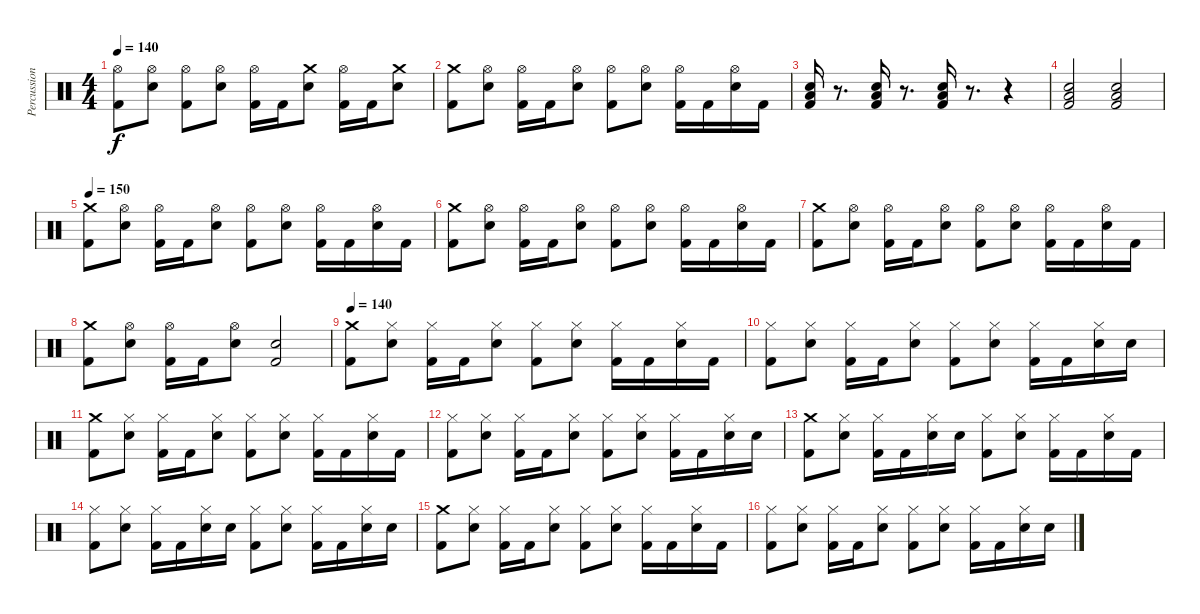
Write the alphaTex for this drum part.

\track ("Percussion" "Percussion") {instrument percussion}
\staff {score}
\articulation defaults
\ts (4 4)
\tempo 140
\clef neutral
\ks c
("Hi-Hat (open)" "Kick (hit) 2").8{dy f} ("Hi-Hat (open)" "Electric Snare (hit)").8 ("Hi-Hat (open)" "Kick (hit) 2").8 ("Hi-Hat (open)" "Electric Snare (hit)").8 ("Hi-Hat (open)" "Kick (hit) 2").16 "Kick (hit) 2".16 ("Crash medium (hit)" "Electric Snare (hit)").8 ("Hi-Hat (open)" "Kick (hit) 2").16 "Kick (hit) 2".16 ("Crash medium (hit)" "Electric Snare (hit)").8 |
("Crash medium (hit)" "Kick (hit) 2").8 ("Hi-Hat (open)" "Electric Snare (hit)").8 ("Hi-Hat (open)" "Kick (hit) 2").16 "Kick (hit) 2".16 ("Hi-Hat (open)" "Electric Snare (hit)").8 ("Hi-Hat (open)" "Kick (hit) 2").8 ("Hi-Hat (open)" "Electric Snare (hit)").8 ("Hi-Hat (open)" "Kick (hit) 2").16 "Kick (hit) 2".16 ("Hi-Hat (open)" "Electric Snare (hit)").16 "Kick (hit) 2".16 |
("Low Floor Tom (hit)" "Electric Snare (hit)" "Kick (hit) 2").16 r.8{d} ("Low Floor Tom (hit)" "Electric Snare (hit)" "Kick (hit) 2").16 r.8{d} ("Low Floor Tom (hit)" "Electric Snare (hit)" "Kick (hit) 2").16 r.8{d} r.4 |
("Low Floor Tom (hit)" "Electric Snare (hit)" "Kick (hit) 2").2 ("Low Floor Tom (hit)" "Electric Snare (hit)" "Kick (hit) 2").2 |
\tempo 150
("Crash medium (hit)" "Kick (hit) 2").8 ("Hi-Hat (open)" "Electric Snare (hit)").8 ("Hi-Hat (open)" "Kick (hit) 2").16 "Kick (hit) 2".16 ("Hi-Hat (open)" "Electric Snare (hit)").8 ("Hi-Hat (open)" "Kick (hit) 2").8 ("Hi-Hat (open)" "Electric Snare (hit)").8 ("Hi-Hat (open)" "Kick (hit) 2").16 "Kick (hit) 2".16 ("Hi-Hat (open)" "Electric Snare (hit)").16 "Kick (hit) 2".16 |
("Crash medium (hit)" "Kick (hit) 2").8 ("Hi-Hat (open)" "Electric Snare (hit)").8 ("Hi-Hat (open)" "Kick (hit) 2").16 "Kick (hit) 2".16 ("Hi-Hat (open)" "Electric Snare (hit)").8 ("Hi-Hat (open)" "Kick (hit) 2").8 ("Hi-Hat (open)" "Electric Snare (hit)").8 ("Hi-Hat (open)" "Kick (hit) 2").16 "Kick (hit) 2".16 ("Hi-Hat (open)" "Electric Snare (hit)").16 "Kick (hit) 2".16 |
("Crash medium (hit)" "Kick (hit) 2").8 ("Hi-Hat (open)" "Electric Snare (hit)").8 ("Hi-Hat (open)" "Kick (hit) 2").16 "Kick (hit) 2".16 ("Hi-Hat (open)" "Electric Snare (hit)").8 ("Hi-Hat (open)" "Kick (hit) 2").8 ("Hi-Hat (open)" "Electric Snare (hit)").8 ("Hi-Hat (open)" "Kick (hit) 2").16 "Kick (hit) 2".16 ("Hi-Hat (open)" "Electric Snare (hit)").16 "Kick (hit) 2".16 |
("Crash medium (hit)" "Kick (hit) 2").8 ("Hi-Hat (open)" "Electric Snare (hit)").8 ("Hi-Hat (open)" "Kick (hit) 2").16 "Kick (hit) 2".16 ("Hi-Hat (open)" "Electric Snare (hit)").8 ("Electric Snare (hit)" "Kick (hit) 2").2 |
\tempo 140
("Crash medium (hit)" "Kick (hit) 2").8 ("Hi-Hat (closed)" "Electric Snare (hit)").8 ("Hi-Hat (closed)" "Kick (hit) 2").16 "Kick (hit) 2".16 ("Hi-Hat (closed)" "Electric Snare (hit)").8 ("Hi-Hat (closed)" "Kick (hit) 2").8 ("Hi-Hat (closed)" "Electric Snare (hit)").8 ("Hi-Hat (closed)" "Kick (hit) 2").16 "Kick (hit) 2".16 ("Hi-Hat (closed)" "Electric Snare (hit)").16 "Kick (hit) 2".16 |
("Hi-Hat (closed)" "Kick (hit) 2").8 ("Hi-Hat (closed)" "Electric Snare (hit)").8 ("Hi-Hat (closed)" "Kick (hit) 2").16 "Kick (hit) 2".16 ("Hi-Hat (closed)" "Electric Snare (hit)").8 ("Hi-Hat (closed)" "Kick (hit) 2").8 ("Hi-Hat (closed)" "Electric Snare (hit)").8 ("Hi-Hat (closed)" "Kick (hit) 2").16 "Kick (hit) 2".16 ("Hi-Hat (closed)" "Electric Snare (hit)").16 "Electric Snare (hit)".16 |
("Crash medium (hit)" "Kick (hit) 2").8 ("Hi-Hat (closed)" "Electric Snare (hit)").8 ("Hi-Hat (closed)" "Kick (hit) 2").16 "Kick (hit) 2".16 ("Hi-Hat (closed)" "Electric Snare (hit)").8 ("Hi-Hat (closed)" "Kick (hit) 2").8 ("Hi-Hat (closed)" "Electric Snare (hit)").8 ("Hi-Hat (closed)" "Kick (hit) 2").16 "Kick (hit) 2".16 ("Hi-Hat (closed)" "Electric Snare (hit)").16 "Kick (hit) 2".16 |
("Hi-Hat (closed)" "Kick (hit) 2").8 ("Hi-Hat (closed)" "Electric Snare (hit)").8 ("Hi-Hat (closed)" "Kick (hit) 2").16 "Kick (hit) 2".16 ("Hi-Hat (closed)" "Electric Snare (hit)").8 ("Hi-Hat (closed)" "Kick (hit) 2").8 ("Hi-Hat (closed)" "Electric Snare (hit)").8 ("Hi-Hat (closed)" "Kick (hit) 2").16 "Kick (hit) 2".16 ("Hi-Hat (closed)" "Electric Snare (hit)").16 "Electric Snare (hit)".16 |
("Crash medium (hit)" "Kick (hit) 2").8 ("Hi-Hat (closed)" "Electric Snare (hit)").8 ("Hi-Hat (closed)" "Kick (hit) 2").16 "Kick (hit) 2".16 ("Hi-Hat (closed)" "Electric Snare (hit)").16 "Electric Snare (hit)".16 ("Hi-Hat (closed)" "Kick (hit) 2").8 ("Hi-Hat (closed)" "Electric Snare (hit)").8 ("Hi-Hat (closed)" "Kick (hit) 2").16 "Kick (hit) 2".16 ("Hi-Hat (closed)" "Electric Snare (hit)").16 "Kick (hit) 2".16 |
("Hi-Hat (closed)" "Kick (hit) 2").8 ("Hi-Hat (closed)" "Electric Snare (hit)").8 ("Hi-Hat (closed)" "Kick (hit) 2").16 "Kick (hit) 2".16 ("Hi-Hat (closed)" "Electric Snare (hit)").16 "Electric Snare (hit)".16 ("Hi-Hat (closed)" "Kick (hit) 2").8 ("Hi-Hat (closed)" "Electric Snare (hit)").8 ("Hi-Hat (closed)" "Kick (hit) 2").16 "Kick (hit) 2".16 ("Hi-Hat (closed)" "Electric Snare (hit)").16 "Electric Snare (hit)".16 |
("Crash medium (hit)" "Kick (hit) 2").8 ("Hi-Hat (closed)" "Electric Snare (hit)").8 ("Hi-Hat (closed)" "Kick (hit) 2").16 "Kick (hit) 2".16 ("Hi-Hat (closed)" "Electric Snare (hit)").8 ("Hi-Hat (closed)" "Kick (hit) 2").8 ("Hi-Hat (closed)" "Electric Snare (hit)").8 ("Hi-Hat (closed)" "Kick (hit) 2").16 "Kick (hit) 2".16 ("Hi-Hat (closed)" "Electric Snare (hit)").16 "Kick (hit) 2".16 |
("Hi-Hat (closed)" "Kick (hit) 2").8 ("Hi-Hat (closed)" "Electric Snare (hit)").8 ("Hi-Hat (closed)" "Kick (hit) 2").16 "Kick (hit) 2".16 ("Hi-Hat (closed)" "Electric Snare (hit)").8 ("Hi-Hat (closed)" "Kick (hit) 2").8 ("Hi-Hat (closed)" "Electric Snare (hit)").8 ("Hi-Hat (closed)" "Kick (hit) 2").16 "Kick (hit) 2".16 ("Hi-Hat (closed)" "Electric Snare (hit)").16 "Electric Snare (hit)".16
